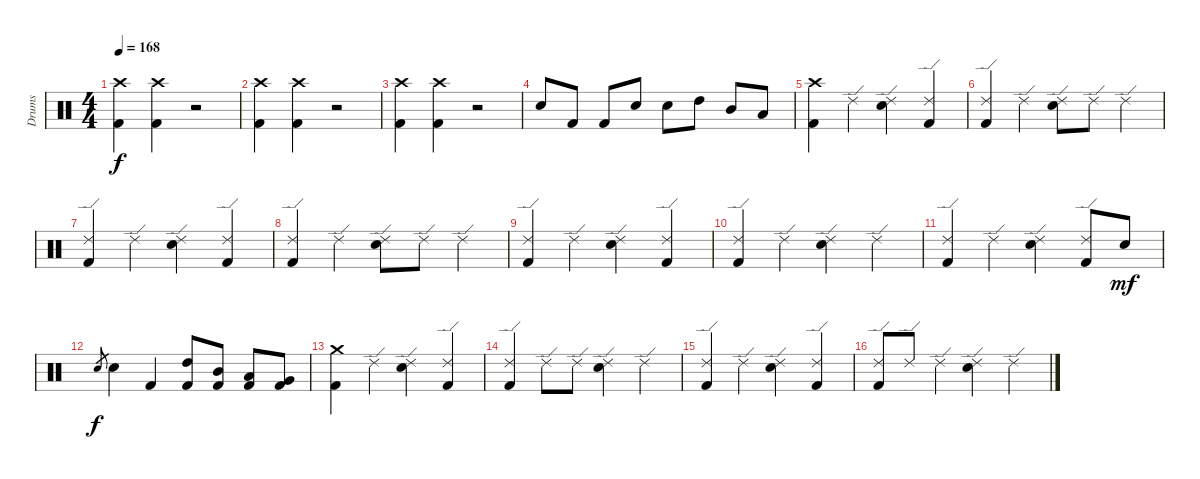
\track ("Drums" "Drums") {instrument percussion}
\staff {score}
\articulation defaults
\ts (4 4)
\tempo 168
\clef neutral
\ks c
("Kick (hit) 2" "Crash high (hit)").4{dy f} ("Kick (hit) 2" "Crash high (hit)").4 r.2 |
("Kick (hit) 2" "Crash high (hit)").4 ("Kick (hit) 2" "Crash high (hit)").4 r.2 |
("Kick (hit) 2" "Crash high (hit)").4 ("Kick (hit) 2" "Crash high (hit)").4 r.2 |
"Electric Snare (hit)".8 "Kick (hit) 2".8 "Kick (hit) 2".8 "Electric Snare (hit)".8 "Electric Snare (hit)".8 "High Tom (hit)".8 "Mid Tom (hit)".8 "Low Tom (hit)".8 |
("Kick (hit) 2" "Crash high (hit)").4 "Ride (edge) 2".4 ("Electric Snare (hit)" "Ride (edge) 2").4 ("Kick (hit) 2" "Ride (edge) 2").4 |
("Kick (hit) 2" "Ride (edge) 2").4 "Ride (edge) 2".4 ("Electric Snare (hit)" "Ride (edge) 2").8 "Ride (edge) 2".8 "Ride (edge) 2".4 |
("Kick (hit) 2" "Ride (edge) 2").4 "Ride (edge) 2".4 ("Electric Snare (hit)" "Ride (edge) 2").4 ("Kick (hit) 2" "Ride (edge) 2").4 |
("Kick (hit) 2" "Ride (edge) 2").4 "Ride (edge) 2".4 ("Electric Snare (hit)" "Ride (edge) 2").8 "Ride (edge) 2".8 "Ride (edge) 2".4 |
("Kick (hit) 2" "Ride (edge) 2").4 "Ride (edge) 2".4 ("Electric Snare (hit)" "Ride (edge) 2").4 ("Kick (hit) 2" "Ride (edge) 2").4 |
("Kick (hit) 2" "Ride (edge) 2").4 "Ride (edge) 2".4 ("Electric Snare (hit)" "Ride (edge) 2").4 "Ride (edge) 2".4 |
("Kick (hit) 2" "Ride (edge) 2").4 "Ride (edge) 2".4 ("Electric Snare (hit)" "Ride (edge) 2").4 ("Kick (hit) 2" "Ride (edge) 2").8 "Electric Snare (hit)".8{dy mf} |
"Electric Snare (hit)".8{gr dy f} "Electric Snare (hit)".4 "Kick (hit) 2".4 ("Kick (hit) 2" "High Tom (hit)").8 ("Kick (hit) 2" "Mid Tom (hit)").8 ("Kick (hit) 2" "Low Tom (hit)").8 ("Kick (hit) 2" "Very Low Tom (hit)").8 |
\section ("" "")
("Kick (hit) 2" "Crash medium (hit)").4 "Ride (edge) 2".4 ("Electric Snare (hit)" "Ride (edge) 2").4 ("Kick (hit) 2" "Ride (edge) 2").4 |
("Kick (hit) 2" "Ride (edge) 2").4 "Ride (edge) 2".8 "Ride (edge) 2".8 ("Electric Snare (hit)" "Ride (edge) 2").4 "Ride (edge) 2".4 |
("Kick (hit) 2" "Ride (edge) 2").4 "Ride (edge) 2".4 ("Electric Snare (hit)" "Ride (edge) 2").4 ("Kick (hit) 2" "Ride (edge) 2").4 |
("Kick (hit) 2" "Ride (edge) 2").8 "Ride (edge) 2".8 "Ride (edge) 2".4 ("Electric Snare (hit)" "Ride (edge) 2").4 "Ride (edge) 2".4
